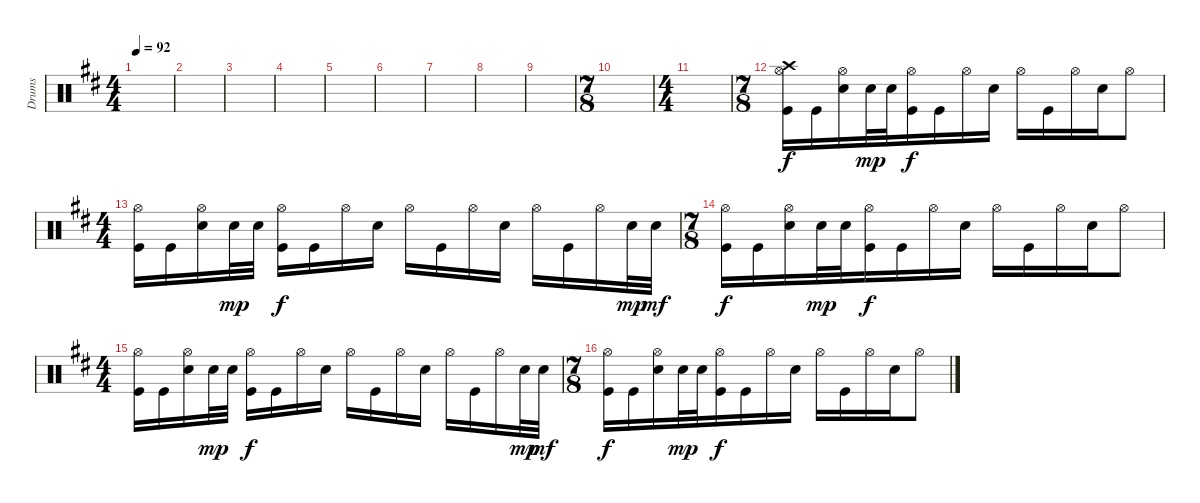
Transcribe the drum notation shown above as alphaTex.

\track ("Drums" "Drums") {instrument percussion}
\staff {score}
\articulation defaults
\ts (4 4)
\tempo 92
\clef neutral
\ks d
|
|
|
|
|
|
|
|
|
\ts (7 8)
|
\ts (4 4)
|
\ts (7 8)
("Crash high (hit)" "Hi-Hat (open)" "Kick (hit)").16 "Kick (hit)".16{dy f} ("Hi-Hat (open)" "Snare (hit) 2").16 "Snare (hit) 2".32{dy mp} "Snare (hit) 2".32 ("Hi-Hat (open)" "Kick (hit)").16{dy f} "Kick (hit)".16 "Hi-Hat (open)".16 "Snare (hit) 2".16 "Hi-Hat (open)".16 "Kick (hit)".16 "Hi-Hat (open)".16 "Snare (hit) 2".16 "Hi-Hat (open)".8 |
\ts (4 4)
("Hi-Hat (open)" "Kick (hit)").16 "Kick (hit)".16 ("Hi-Hat (open)" "Snare (hit) 2").16 "Snare (hit) 2".32{dy mp} "Snare (hit) 2".32 ("Hi-Hat (open)" "Kick (hit)").16{dy f} "Kick (hit)".16 "Hi-Hat (open)".16 "Snare (hit) 2".16 "Hi-Hat (open)".16 "Kick (hit)".16 "Hi-Hat (open)".16 "Snare (hit) 2".16 "Hi-Hat (open)".16 "Kick (hit)".16 "Hi-Hat (open)".16 "Snare (hit) 2".32{dy mp} "Snare (hit) 2".32{dy mf} |
\ts (7 8)
("Hi-Hat (open)" "Kick (hit)").16{dy f} "Kick (hit)".16 ("Hi-Hat (open)" "Snare (hit) 2").16 "Snare (hit) 2".32{dy mp} "Snare (hit) 2".32 ("Hi-Hat (open)" "Kick (hit)").16{dy f} "Kick (hit)".16 "Hi-Hat (open)".16 "Snare (hit) 2".16 "Hi-Hat (open)".16 "Kick (hit)".16 "Hi-Hat (open)".16 "Snare (hit) 2".16 "Hi-Hat (open)".8 |
\ts (4 4)
("Hi-Hat (open)" "Kick (hit)").16 "Kick (hit)".16 ("Hi-Hat (open)" "Snare (hit) 2").16 "Snare (hit) 2".32{dy mp} "Snare (hit) 2".32 ("Hi-Hat (open)" "Kick (hit)").16{dy f} "Kick (hit)".16 "Hi-Hat (open)".16 "Snare (hit) 2".16 "Hi-Hat (open)".16 "Kick (hit)".16 "Hi-Hat (open)".16 "Snare (hit) 2".16 "Hi-Hat (open)".16 "Kick (hit)".16 "Hi-Hat (open)".16 "Snare (hit) 2".32{dy mp} "Snare (hit) 2".32{dy mf} |
\ts (7 8)
("Hi-Hat (open)" "Kick (hit)").16{dy f} "Kick (hit)".16 ("Hi-Hat (open)" "Snare (hit) 2").16 "Snare (hit) 2".32{dy mp} "Snare (hit) 2".32 ("Hi-Hat (open)" "Kick (hit)").16{dy f} "Kick (hit)".16 "Hi-Hat (open)".16 "Snare (hit) 2".16 "Hi-Hat (open)".16 "Kick (hit)".16 "Hi-Hat (open)".16 "Snare (hit) 2".16 "Hi-Hat (open)".8
